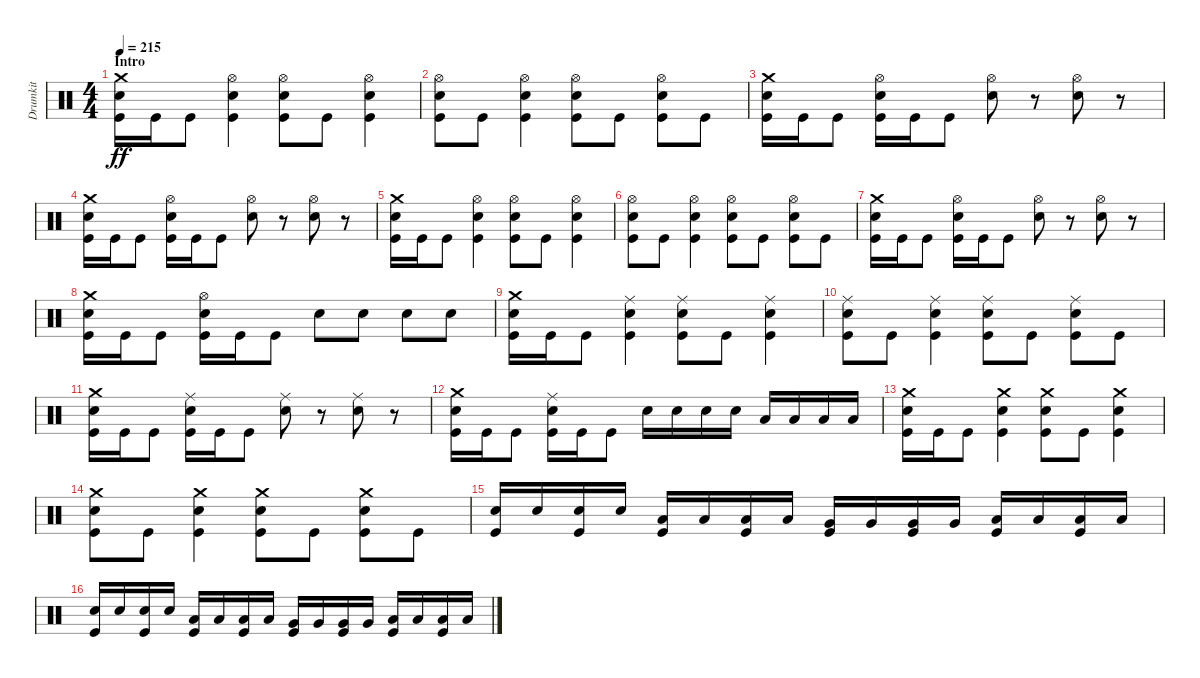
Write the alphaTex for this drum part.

\track ("Drumkit" "Drumkit") {instrument percussion}
\staff {score}
\articulation defaults
\ts (4 4)
\section ("" "Intro")
\tempo 215
\clef neutral
\ks c
("Kick (hit)" "Snare (hit) 2" "Crash medium (hit)").16{dy ff} "Kick (hit)".16 "Kick (hit)".8 ("Kick (hit)" "Hi-Hat (open)" "Snare (hit) 2").4 ("Kick (hit)" "Hi-Hat (open)" "Snare (hit) 2").8 "Kick (hit)".8 ("Kick (hit)" "Hi-Hat (open)" "Snare (hit) 2").4 |
("Kick (hit)" "Hi-Hat (open)" "Snare (hit) 2").8 "Kick (hit)".8 ("Kick (hit)" "Hi-Hat (open)" "Snare (hit) 2").4 ("Kick (hit)" "Hi-Hat (open)" "Snare (hit) 2").8 "Kick (hit)".8 ("Kick (hit)" "Hi-Hat (open)" "Snare (hit) 2").8 "Kick (hit)".8 |
("Kick (hit)" "Snare (hit) 2" "Crash medium (hit)").16 "Kick (hit)".16 "Kick (hit)".8 ("Kick (hit)" "Hi-Hat (open)" "Snare (hit) 2").16 "Kick (hit)".16 "Kick (hit)".8 ("Hi-Hat (open)" "Snare (hit) 2").8 r.8 ("Hi-Hat (open)" "Snare (hit) 2").8 r.8 |
("Kick (hit)" "Snare (hit) 2" "Crash medium (hit)").16 "Kick (hit)".16 "Kick (hit)".8 ("Kick (hit)" "Hi-Hat (open)" "Snare (hit) 2").16 "Kick (hit)".16 "Kick (hit)".8 ("Hi-Hat (open)" "Snare (hit) 2").8 r.8 ("Hi-Hat (open)" "Snare (hit) 2").8 r.8 |
("Kick (hit)" "Snare (hit) 2" "Crash medium (hit)").16 "Kick (hit)".16 "Kick (hit)".8 ("Kick (hit)" "Hi-Hat (open)" "Snare (hit) 2").4 ("Kick (hit)" "Hi-Hat (open)" "Snare (hit) 2").8 "Kick (hit)".8 ("Kick (hit)" "Hi-Hat (open)" "Snare (hit) 2").4 |
("Kick (hit)" "Hi-Hat (open)" "Snare (hit) 2").8 "Kick (hit)".8 ("Kick (hit)" "Hi-Hat (open)" "Snare (hit) 2").4 ("Kick (hit)" "Hi-Hat (open)" "Snare (hit) 2").8 "Kick (hit)".8 ("Kick (hit)" "Hi-Hat (open)" "Snare (hit) 2").8 "Kick (hit)".8 |
("Kick (hit)" "Snare (hit) 2" "Crash medium (hit)").16 "Kick (hit)".16 "Kick (hit)".8 ("Kick (hit)" "Hi-Hat (open)" "Snare (hit) 2").16 "Kick (hit)".16 "Kick (hit)".8 ("Hi-Hat (open)" "Snare (hit) 2").8 r.8 ("Hi-Hat (open)" "Snare (hit) 2").8 r.8 |
("Kick (hit)" "Snare (hit) 2" "Crash medium (hit)").16 "Kick (hit)".16 "Kick (hit)".8 ("Kick (hit)" "Hi-Hat (open)" "Snare (hit) 2").16 "Kick (hit)".16 "Kick (hit)".8 "Snare (hit) 2".8 "Snare (hit) 2".8 "Snare (hit) 2".8 "Snare (hit) 2".8 |
("Kick (hit)" "Snare (hit) 2" "Crash medium (hit)").16 "Kick (hit)".16 "Kick (hit)".8 ("Kick (hit)" "Snare (hit) 2" "Ride (middle)").4 ("Kick (hit)" "Snare (hit) 2" "Ride (middle)").8 "Kick (hit)".8 ("Kick (hit)" "Snare (hit) 2" "Ride (middle)").4 |
("Kick (hit)" "Snare (hit) 2" "Ride (middle)").8 "Kick (hit)".8 ("Kick (hit)" "Snare (hit) 2" "Ride (middle)").4 ("Kick (hit)" "Snare (hit) 2" "Ride (middle)").8 "Kick (hit)".8 ("Kick (hit)" "Snare (hit) 2" "Ride (middle)").8 "Kick (hit)".8 |
("Kick (hit)" "Snare (hit) 2" "Crash medium (hit)").16 "Kick (hit)".16 "Kick (hit)".8 ("Kick (hit)" "Snare (hit) 2" "Ride (middle)").16 "Kick (hit)".16 "Kick (hit)".8 ("Snare (hit) 2" "Ride (middle)").8 r.8 ("Snare (hit) 2" "Ride (middle)").8 r.8 |
("Kick (hit)" "Snare (hit) 2" "Crash medium (hit)").16 "Kick (hit)".16 "Kick (hit)".8 ("Kick (hit)" "Snare (hit) 2" "Ride (middle)").16 "Kick (hit)".16 "Kick (hit)".8 "Snare (hit) 2".16 "Snare (hit) 2".16 "Snare (hit) 2".16 "Snare (hit) 2".16 "Low Floor Tom (hit)".16 "Low Floor Tom (hit)".16 "Low Floor Tom (hit)".16 "Low Floor Tom (hit)".16 |
("Kick (hit)" "Snare (hit) 2" "Crash medium (hit)").16 "Kick (hit)".16 "Kick (hit)".8 ("Kick (hit)" "Snare (hit) 2" "Crash medium (hit)").4 ("Kick (hit)" "Snare (hit) 2" "Crash medium (hit)").8 "Kick (hit)".8 ("Kick (hit)" "Snare (hit) 2" "Crash medium (hit)").4 |
("Kick (hit)" "Snare (hit) 2" "Crash medium (hit)").8 "Kick (hit)".8 ("Kick (hit)" "Snare (hit) 2" "Crash medium (hit)").4 ("Kick (hit)" "Snare (hit) 2" "Crash medium (hit)").8 "Kick (hit)".8 ("Kick (hit)" "Snare (hit) 2" "Crash medium (hit)").8 "Kick (hit)".8 |
("Snare (hit) 2" "Kick (hit)").16 "Snare (hit) 2".16 ("Snare (hit) 2" "Kick (hit)").16 "Snare (hit) 2".16 ("Low Tom (hit)" "Kick (hit)").16 "Low Tom (hit)".16 ("Low Tom (hit)" "Kick (hit)").16 "Low Tom (hit)".16 ("Very Low Tom (hit)" "Kick (hit)").16 "Very Low Tom (hit)".16 ("Very Low Tom (hit)" "Kick (hit)").16 "Very Low Tom (hit)".16 ("Low Floor Tom (hit)" "Kick (hit)").16 "Low Floor Tom (hit)".16 ("Low Floor Tom (hit)" "Kick (hit)").16 "Low Floor Tom (hit)".16 |
("Snare (hit) 2" "Kick (hit)").16 "Snare (hit) 2".16 ("Snare (hit) 2" "Kick (hit)").16 "Snare (hit) 2".16 ("Low Tom (hit)" "Kick (hit)").16 "Low Tom (hit)".16 ("Low Tom (hit)" "Kick (hit)").16 "Low Tom (hit)".16 ("Very Low Tom (hit)" "Kick (hit)").16 "Very Low Tom (hit)".16 ("Very Low Tom (hit)" "Kick (hit)").16 "Very Low Tom (hit)".16 ("Low Floor Tom (hit)" "Kick (hit)").16 "Low Floor Tom (hit)".16 ("Low Floor Tom (hit)" "Kick (hit)").16 "Low Floor Tom (hit)".16
